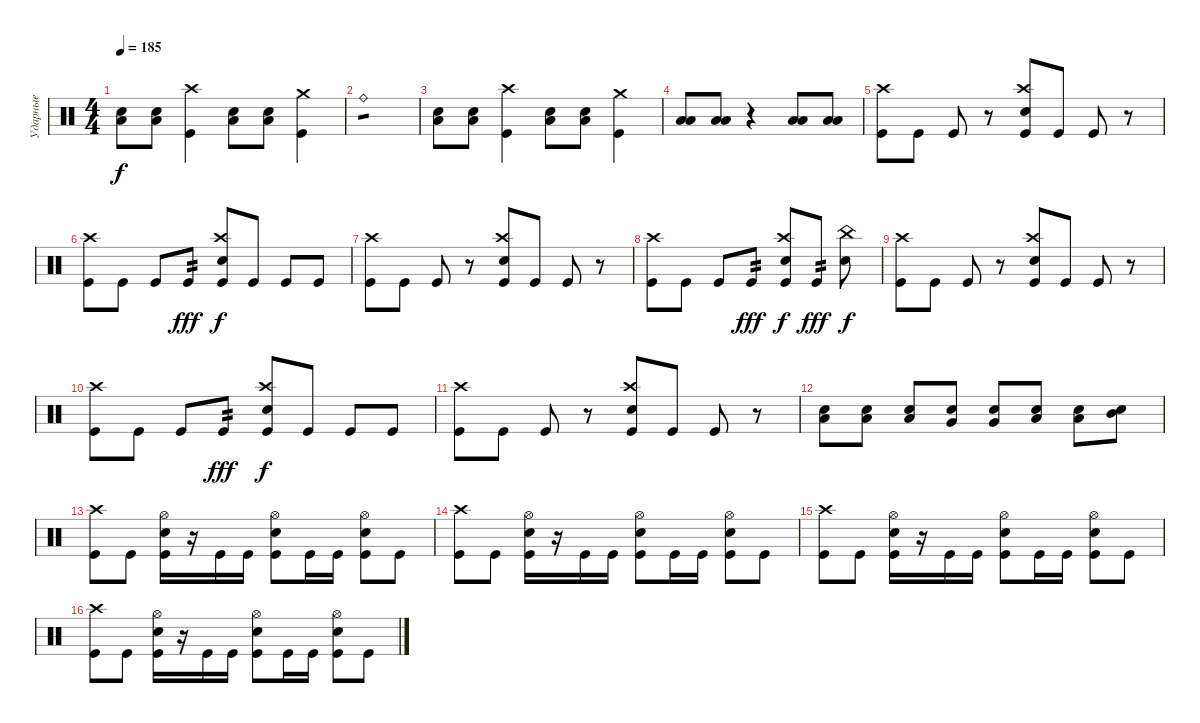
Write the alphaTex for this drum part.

\track ("Ударные" "Ударные") {instrument percussion}
\staff {score}
\articulation defaults
\ts (4 4)
\tempo 185
\clef neutral
\ks c
("Low Floor Tom (hit)" "Snare (hit) 2").8{dy f} ("Low Floor Tom (hit)" "Snare (hit) 2").8 ("Crash high (hit)" "Kick (hit)").4 ("Low Floor Tom (hit)" "Snare (hit) 2").8 ("Low Floor Tom (hit)" "Snare (hit) 2").8 ("Crash medium (hit)" "Kick (hit)").4 |
"Ride (bell)".1{tp 1} |
("Low Floor Tom (hit)" "Snare (hit) 2").8 ("Low Floor Tom (hit)" "Snare (hit) 2").8 ("Crash high (hit)" "Kick (hit)").4 ("Low Floor Tom (hit)" "Snare (hit) 2").8 ("Low Floor Tom (hit)" "Snare (hit) 2").8 ("Crash medium (hit)" "Kick (hit)").4 |
("Low Tom (hit)" "Low Floor Tom (hit)").8 ("Low Tom (hit)" "Low Floor Tom (hit)").8 r.4 ("Low Tom (hit)" "Low Floor Tom (hit)").8 ("Low Tom (hit)" "Low Floor Tom (hit)").8 |
("Crash high (hit)" "Kick (hit)").8 "Kick (hit)".8 "Kick (hit)".8 r.8 ("Crash high (hit)" "Kick (hit)" "Snare (hit) 2").8 "Kick (hit)".8 "Kick (hit)".8 r.8 |
("Crash high (hit)" "Kick (hit)").8 "Kick (hit)".8 "Kick (hit)".8 "Kick (hit)".8{tp 2 dy fff} ("Crash high (hit)" "Kick (hit)" "Snare (hit) 2").8{dy f} "Kick (hit)".8 "Kick (hit)".8 "Kick (hit)".8 |
("Crash high (hit)" "Kick (hit)").8 "Kick (hit)".8 "Kick (hit)".8 r.8 ("Crash high (hit)" "Kick (hit)" "Snare (hit) 2").8 "Kick (hit)".8 "Kick (hit)".8 r.8 |
("Crash high (hit)" "Kick (hit)").8 "Kick (hit)".8 "Kick (hit)".8 "Kick (hit)".8{tp 2 dy fff} ("Crash high (hit)" "Kick (hit)" "Snare (hit) 2").8{dy f} "Kick (hit)".8{tp 2 dy fff} ("China (hit)" "Snare (hit) 2").8{dy f} |
("Crash high (hit)" "Kick (hit)").8 "Kick (hit)".8 "Kick (hit)".8 r.8 ("Crash high (hit)" "Kick (hit)" "Snare (hit) 2").8 "Kick (hit)".8 "Kick (hit)".8 r.8 |
("Crash high (hit)" "Kick (hit)").8 "Kick (hit)".8 "Kick (hit)".8 "Kick (hit)".8{tp 2 dy fff} ("Crash high (hit)" "Kick (hit)" "Snare (hit) 2").8{dy f} "Kick (hit)".8 "Kick (hit)".8 "Kick (hit)".8 |
("Crash high (hit)" "Kick (hit)").8 "Kick (hit)".8 "Kick (hit)".8 r.8 ("Crash high (hit)" "Kick (hit)" "Snare (hit) 2").8 "Kick (hit)".8 "Kick (hit)".8 r.8 |
("Snare (hit) 2" "Low Floor Tom (hit)").8 ("Snare (hit) 2" "Low Floor Tom (hit)").8 ("Snare (hit) 2" "Low Floor Tom (hit)").8 ("Snare (hit) 2" "Very Low Tom (hit)").8 ("Snare (hit) 2" "Very Low Tom (hit)").8 ("Snare (hit) 2" "Low Tom (hit)").8 ("Snare (hit) 2" "Low Tom (hit)").8 ("Snare (hit) 2" "Mid Tom (hit)").8 |
("Kick (hit)" "Crash high (hit)").8 "Kick (hit)".8 ("Kick (hit)" "Snare (hit) 2" "Hi-Hat (open)").16 r.16 "Kick (hit)".16 "Kick (hit)".16 ("Kick (hit)" "Snare (hit) 2" "Hi-Hat (open)").8 "Kick (hit)".16 "Kick (hit)".16 ("Kick (hit)" "Snare (hit) 2" "Hi-Hat (open)").8 "Kick (hit)".8 |
("Kick (hit)" "Crash high (hit)").8 "Kick (hit)".8 ("Kick (hit)" "Snare (hit) 2" "Hi-Hat (open)").16 r.16 "Kick (hit)".16 "Kick (hit)".16 ("Kick (hit)" "Snare (hit) 2" "Hi-Hat (open)").8 "Kick (hit)".16 "Kick (hit)".16 ("Kick (hit)" "Snare (hit) 2" "Hi-Hat (open)").8 "Kick (hit)".8 |
("Kick (hit)" "Crash high (hit)").8 "Kick (hit)".8 ("Kick (hit)" "Snare (hit) 2" "Hi-Hat (open)").16 r.16 "Kick (hit)".16 "Kick (hit)".16 ("Kick (hit)" "Snare (hit) 2" "Hi-Hat (open)").8 "Kick (hit)".16 "Kick (hit)".16 ("Kick (hit)" "Snare (hit) 2" "Hi-Hat (open)").8 "Kick (hit)".8 |
("Kick (hit)" "Crash high (hit)").8 "Kick (hit)".8 ("Kick (hit)" "Snare (hit) 2" "Hi-Hat (open)").16 r.16 "Kick (hit)".16 "Kick (hit)".16 ("Kick (hit)" "Snare (hit) 2" "Hi-Hat (open)").8 "Kick (hit)".16 "Kick (hit)".16 ("Kick (hit)" "Snare (hit) 2" "Hi-Hat (open)").8 "Kick (hit)".8
